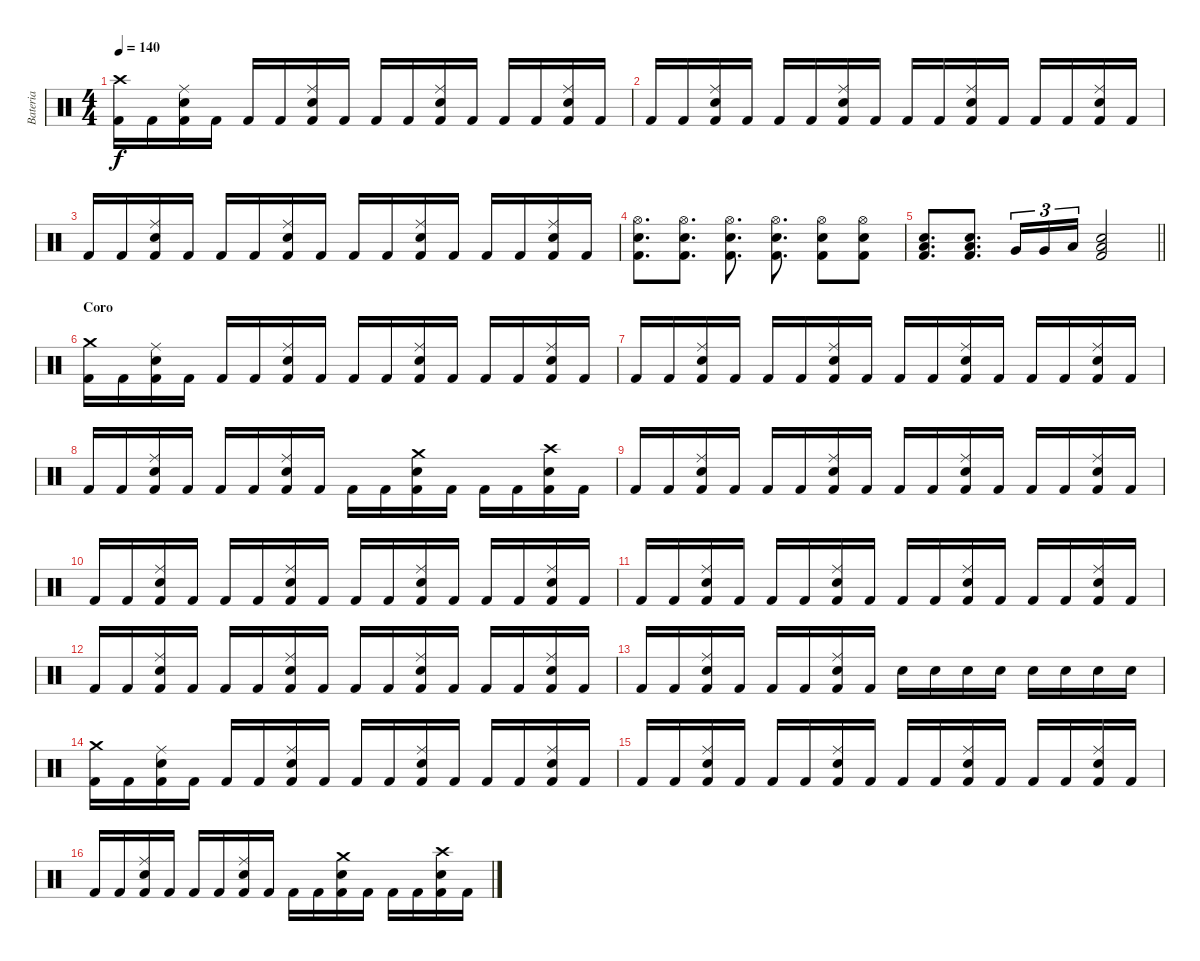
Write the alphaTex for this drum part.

\track ("Bateria" "Bateria") {instrument percussion}
\staff {score}
\articulation defaults
\ts (4 4)
\tempo 140
\clef neutral
\ks c
("Crash high (hit)" "Kick (hit) 2").16{dy f} "Kick (hit) 2".16 ("Ride (middle)" "Snare (hit) 2" "Kick (hit) 2").16 "Kick (hit) 2".16 "Kick (hit) 2".16 "Kick (hit) 2".16 ("Ride (middle)" "Snare (hit) 2" "Kick (hit) 2").16 "Kick (hit) 2".16 "Kick (hit) 2".16 "Kick (hit) 2".16 ("Ride (middle)" "Snare (hit) 2" "Kick (hit) 2").16 "Kick (hit) 2".16 "Kick (hit) 2".16 "Kick (hit) 2".16 ("Ride (middle)" "Snare (hit) 2" "Kick (hit) 2").16 "Kick (hit) 2".16 |
"Kick (hit) 2".16 "Kick (hit) 2".16 ("Ride (middle)" "Snare (hit) 2" "Kick (hit) 2").16 "Kick (hit) 2".16 "Kick (hit) 2".16 "Kick (hit) 2".16 ("Ride (middle)" "Snare (hit) 2" "Kick (hit) 2").16 "Kick (hit) 2".16 "Kick (hit) 2".16 "Kick (hit) 2".16 ("Ride (middle)" "Snare (hit) 2" "Kick (hit) 2").16 "Kick (hit) 2".16 "Kick (hit) 2".16 "Kick (hit) 2".16 ("Ride (middle)" "Snare (hit) 2" "Kick (hit) 2").16 "Kick (hit) 2".16 |
"Kick (hit) 2".16 "Kick (hit) 2".16 ("Ride (middle)" "Snare (hit) 2" "Kick (hit) 2").16 "Kick (hit) 2".16 "Kick (hit) 2".16 "Kick (hit) 2".16 ("Ride (middle)" "Snare (hit) 2" "Kick (hit) 2").16 "Kick (hit) 2".16 "Kick (hit) 2".16 "Kick (hit) 2".16 ("Ride (middle)" "Snare (hit) 2" "Kick (hit) 2").16 "Kick (hit) 2".16 "Kick (hit) 2".16 "Kick (hit) 2".16 ("Ride (middle)" "Snare (hit) 2" "Kick (hit) 2").16 "Kick (hit) 2".16 |
("Hi-Hat (open)" "Snare (hit) 2" "Kick (hit) 2").8{d} ("Hi-Hat (open)" "Snare (hit) 2" "Kick (hit) 2").8{d} ("Hi-Hat (open)" "Snare (hit) 2" "Kick (hit) 2").8{d} ("Hi-Hat (open)" "Snare (hit) 2" "Kick (hit) 2").8{d} ("Hi-Hat (open)" "Snare (hit) 2" "Kick (hit) 2").8 ("Hi-Hat (open)" "Snare (hit) 2" "Kick (hit) 2").8 |
\barLineRight lightlight
("Low Tom (hit)" "Snare (hit) 2" "Kick (hit) 2").8{d} ("Low Tom (hit)" "Snare (hit) 2" "Kick (hit) 2").8{d} "Very Low Tom (hit)".16{tu (3 2)} "Very Low Tom (hit)".16{tu (3 2)} "Low Floor Tom (hit)".16{tu (3 2)} ("Low Tom (hit)" "Snare (hit) 2" "Kick (hit) 2").2 |
\section ("" "Coro")
("Crash medium (hit)" "Kick (hit) 2").16 "Kick (hit) 2".16 ("Ride (middle)" "Snare (hit) 2" "Kick (hit) 2").16 "Kick (hit) 2".16 "Kick (hit) 2".16 "Kick (hit) 2".16 ("Ride (middle)" "Snare (hit) 2" "Kick (hit) 2").16 "Kick (hit) 2".16 "Kick (hit) 2".16 "Kick (hit) 2".16 ("Ride (middle)" "Snare (hit) 2" "Kick (hit) 2").16 "Kick (hit) 2".16 "Kick (hit) 2".16 "Kick (hit) 2".16 ("Ride (middle)" "Snare (hit) 2" "Kick (hit) 2").16 "Kick (hit) 2".16 |
"Kick (hit) 2".16 "Kick (hit) 2".16 ("Ride (middle)" "Snare (hit) 2" "Kick (hit) 2").16 "Kick (hit) 2".16 "Kick (hit) 2".16 "Kick (hit) 2".16 ("Ride (middle)" "Snare (hit) 2" "Kick (hit) 2").16 "Kick (hit) 2".16 "Kick (hit) 2".16 "Kick (hit) 2".16 ("Ride (middle)" "Snare (hit) 2" "Kick (hit) 2").16 "Kick (hit) 2".16 "Kick (hit) 2".16 "Kick (hit) 2".16 ("Ride (middle)" "Snare (hit) 2" "Kick (hit) 2").16 "Kick (hit) 2".16 |
"Kick (hit) 2".16 "Kick (hit) 2".16 ("Ride (middle)" "Snare (hit) 2" "Kick (hit) 2").16 "Kick (hit) 2".16 "Kick (hit) 2".16 "Kick (hit) 2".16 ("Ride (middle)" "Snare (hit) 2" "Kick (hit) 2").16 "Kick (hit) 2".16 "Kick (hit) 2".16 "Kick (hit) 2".16 ("Crash medium (hit)" "Snare (hit) 2" "Kick (hit) 2").16 "Kick (hit) 2".16 "Kick (hit) 2".16 "Kick (hit) 2".16 ("Crash high (hit)" "Snare (hit) 2" "Kick (hit) 2").16 "Kick (hit) 2".16 |
"Kick (hit) 2".16 "Kick (hit) 2".16 ("Ride (middle)" "Snare (hit) 2" "Kick (hit) 2").16 "Kick (hit) 2".16 "Kick (hit) 2".16 "Kick (hit) 2".16 ("Ride (middle)" "Snare (hit) 2" "Kick (hit) 2").16 "Kick (hit) 2".16 "Kick (hit) 2".16 "Kick (hit) 2".16 ("Ride (middle)" "Snare (hit) 2" "Kick (hit) 2").16 "Kick (hit) 2".16 "Kick (hit) 2".16 "Kick (hit) 2".16 ("Ride (middle)" "Snare (hit) 2" "Kick (hit) 2").16 "Kick (hit) 2".16 |
"Kick (hit) 2".16 "Kick (hit) 2".16 ("Ride (middle)" "Snare (hit) 2" "Kick (hit) 2").16 "Kick (hit) 2".16 "Kick (hit) 2".16 "Kick (hit) 2".16 ("Ride (middle)" "Snare (hit) 2" "Kick (hit) 2").16 "Kick (hit) 2".16 "Kick (hit) 2".16 "Kick (hit) 2".16 ("Ride (middle)" "Snare (hit) 2" "Kick (hit) 2").16 "Kick (hit) 2".16 "Kick (hit) 2".16 "Kick (hit) 2".16 ("Ride (middle)" "Snare (hit) 2" "Kick (hit) 2").16 "Kick (hit) 2".16 |
"Kick (hit) 2".16 "Kick (hit) 2".16 ("Ride (middle)" "Snare (hit) 2" "Kick (hit) 2").16 "Kick (hit) 2".16 "Kick (hit) 2".16 "Kick (hit) 2".16 ("Ride (middle)" "Snare (hit) 2" "Kick (hit) 2").16 "Kick (hit) 2".16 "Kick (hit) 2".16 "Kick (hit) 2".16 ("Ride (middle)" "Snare (hit) 2" "Kick (hit) 2").16 "Kick (hit) 2".16 "Kick (hit) 2".16 "Kick (hit) 2".16 ("Ride (middle)" "Snare (hit) 2" "Kick (hit) 2").16 "Kick (hit) 2".16 |
"Kick (hit) 2".16 "Kick (hit) 2".16 ("Ride (middle)" "Snare (hit) 2" "Kick (hit) 2").16 "Kick (hit) 2".16 "Kick (hit) 2".16 "Kick (hit) 2".16 ("Ride (middle)" "Snare (hit) 2" "Kick (hit) 2").16 "Kick (hit) 2".16 "Kick (hit) 2".16 "Kick (hit) 2".16 ("Ride (middle)" "Snare (hit) 2" "Kick (hit) 2").16 "Kick (hit) 2".16 "Kick (hit) 2".16 "Kick (hit) 2".16 ("Ride (middle)" "Snare (hit) 2" "Kick (hit) 2").16 "Kick (hit) 2".16 |
"Kick (hit) 2".16 "Kick (hit) 2".16 ("Ride (middle)" "Snare (hit) 2" "Kick (hit) 2").16 "Kick (hit) 2".16 "Kick (hit) 2".16 "Kick (hit) 2".16 ("Ride (middle)" "Snare (hit) 2" "Kick (hit) 2").16 "Kick (hit) 2".16 "Snare (hit) 2".16 "Snare (hit) 2".16 "Snare (hit) 2".16 "Snare (hit) 2".16 "Snare (hit) 2".16 "Snare (hit) 2".16 "Snare (hit) 2".16 "Snare (hit) 2".16 |
("Crash medium (hit)" "Kick (hit) 2").16 "Kick (hit) 2".16 ("Ride (middle)" "Snare (hit) 2" "Kick (hit) 2").16 "Kick (hit) 2".16 "Kick (hit) 2".16 "Kick (hit) 2".16 ("Ride (middle)" "Snare (hit) 2" "Kick (hit) 2").16 "Kick (hit) 2".16 "Kick (hit) 2".16 "Kick (hit) 2".16 ("Ride (middle)" "Snare (hit) 2" "Kick (hit) 2").16 "Kick (hit) 2".16 "Kick (hit) 2".16 "Kick (hit) 2".16 ("Ride (middle)" "Snare (hit) 2" "Kick (hit) 2").16 "Kick (hit) 2".16 |
"Kick (hit) 2".16 "Kick (hit) 2".16 ("Ride (middle)" "Snare (hit) 2" "Kick (hit) 2").16 "Kick (hit) 2".16 "Kick (hit) 2".16 "Kick (hit) 2".16 ("Ride (middle)" "Snare (hit) 2" "Kick (hit) 2").16 "Kick (hit) 2".16 "Kick (hit) 2".16 "Kick (hit) 2".16 ("Ride (middle)" "Snare (hit) 2" "Kick (hit) 2").16 "Kick (hit) 2".16 "Kick (hit) 2".16 "Kick (hit) 2".16 ("Ride (middle)" "Snare (hit) 2" "Kick (hit) 2").16 "Kick (hit) 2".16 |
"Kick (hit) 2".16 "Kick (hit) 2".16 ("Ride (middle)" "Snare (hit) 2" "Kick (hit) 2").16 "Kick (hit) 2".16 "Kick (hit) 2".16 "Kick (hit) 2".16 ("Ride (middle)" "Snare (hit) 2" "Kick (hit) 2").16 "Kick (hit) 2".16 "Kick (hit) 2".16 "Kick (hit) 2".16 ("Crash medium (hit)" "Snare (hit) 2" "Kick (hit) 2").16 "Kick (hit) 2".16 "Kick (hit) 2".16 "Kick (hit) 2".16 ("Crash high (hit)" "Snare (hit) 2" "Kick (hit) 2").16 "Kick (hit) 2".16
